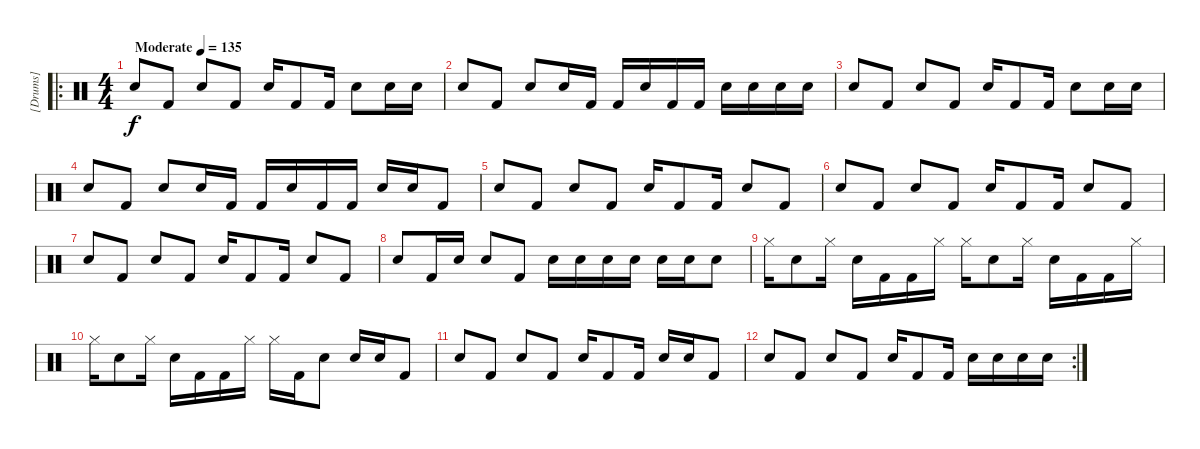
\track ("[Drums]" "[Drums]") {instrument percussion}
\staff {score}
\articulation defaults
\ro
\ts (4 4)
\tempo (135 "Moderate")
\clef neutral
\ks c "Snare (hit) 2".8{dy f} "Kick (hit) 2".8 "Snare (hit) 2".8 "Kick (hit) 2".8 "Snare (hit) 2".16 "Kick (hit) 2".8 "Kick (hit) 2".16 "Snare (hit) 2".8 "Snare (hit) 2".16 "Snare (hit) 2".16
|
"Snare (hit) 2".8 "Kick (hit) 2".8 "Snare (hit) 2".8 "Snare (hit) 2".16 "Kick (hit) 2".16 "Kick (hit) 2".16 "Snare (hit) 2".16 "Kick (hit) 2".16 "Kick (hit) 2".16 "Snare (hit) 2".16 "Snare (hit) 2".16 "Snare (hit) 2".16 "Snare (hit) 2".16 |
"Snare (hit) 2".8 "Kick (hit) 2".8 "Snare (hit) 2".8 "Kick (hit) 2".8 "Snare (hit) 2".16 "Kick (hit) 2".8 "Kick (hit) 2".16 "Snare (hit) 2".8 "Snare (hit) 2".16 "Snare (hit) 2".16 |
"Snare (hit) 2".8 "Kick (hit) 2".8 "Snare (hit) 2".8 "Snare (hit) 2".16 "Kick (hit) 2".16 "Kick (hit) 2".16 "Snare (hit) 2".16 "Kick (hit) 2".16 "Kick (hit) 2".16 "Snare (hit) 2".16 "Snare (hit) 2".16 "Kick (hit) 2".8 |
"Snare (hit) 2".8 "Kick (hit) 2".8 "Snare (hit) 2".8 "Kick (hit) 2".8 "Snare (hit) 2".16 "Kick (hit) 2".8 "Kick (hit) 2".16 "Snare (hit) 2".8 "Kick (hit) 2".8 |
"Snare (hit) 2".8 "Kick (hit) 2".8 "Snare (hit) 2".8 "Kick (hit) 2".8 "Snare (hit) 2".16 "Kick (hit) 2".8 "Kick (hit) 2".16 "Snare (hit) 2".8 "Kick (hit) 2".8 |
"Snare (hit) 2".8 "Kick (hit) 2".8 "Snare (hit) 2".8 "Kick (hit) 2".8 "Snare (hit) 2".16 "Kick (hit) 2".8 "Kick (hit) 2".16 "Snare (hit) 2".8 "Kick (hit) 2".8 |
"Snare (hit) 2".8 "Kick (hit) 2".16 "Snare (hit) 2".16 "Snare (hit) 2".8 "Kick (hit) 2".8 "Snare (hit) 2".16 "Snare (hit) 2".16 "Snare (hit) 2".16 "Snare (hit) 2".16 "Snare (hit) 2".16 "Snare (hit) 2".16 "Snare (hit) 2".8 |
"Hi-Hat (closed)".16 "Snare (hit) 2".8 "Hi-Hat (closed)".16 "Snare (hit) 2".16 "Kick (hit) 2".16 "Kick (hit) 2".16 "Hi-Hat (closed)".16 "Hi-Hat (closed)".16 "Snare (hit) 2".8 "Hi-Hat (closed)".16 "Snare (hit) 2".16 "Kick (hit) 2".16 "Kick (hit) 2".16 "Hi-Hat (closed)".16 |
"Hi-Hat (closed)".16 "Snare (hit) 2".8 "Hi-Hat (closed)".16 "Snare (hit) 2".16 "Kick (hit) 2".16 "Kick (hit) 2".16 "Hi-Hat (closed)".16 "Hi-Hat (closed)".16 "Kick (hit) 2".16 "Snare (hit) 2".8 "Snare (hit) 2".16 "Snare (hit) 2".16 "Kick (hit) 2".8 |
"Snare (hit) 2".8 "Kick (hit) 2".8 "Snare (hit) 2".8 "Kick (hit) 2".8 "Snare (hit) 2".16 "Kick (hit) 2".8 "Kick (hit) 2".16 "Snare (hit) 2".16 "Snare (hit) 2".16 "Kick (hit) 2".8 |
\rc 2 "Snare (hit) 2".8 "Kick (hit) 2".8 "Snare (hit) 2".8 "Kick (hit) 2".8 "Snare (hit) 2".16 "Kick (hit) 2".8 "Kick (hit) 2".16 "Snare (hit) 2".16 "Snare (hit) 2".16 "Snare (hit) 2".16 "Snare (hit) 2".16
